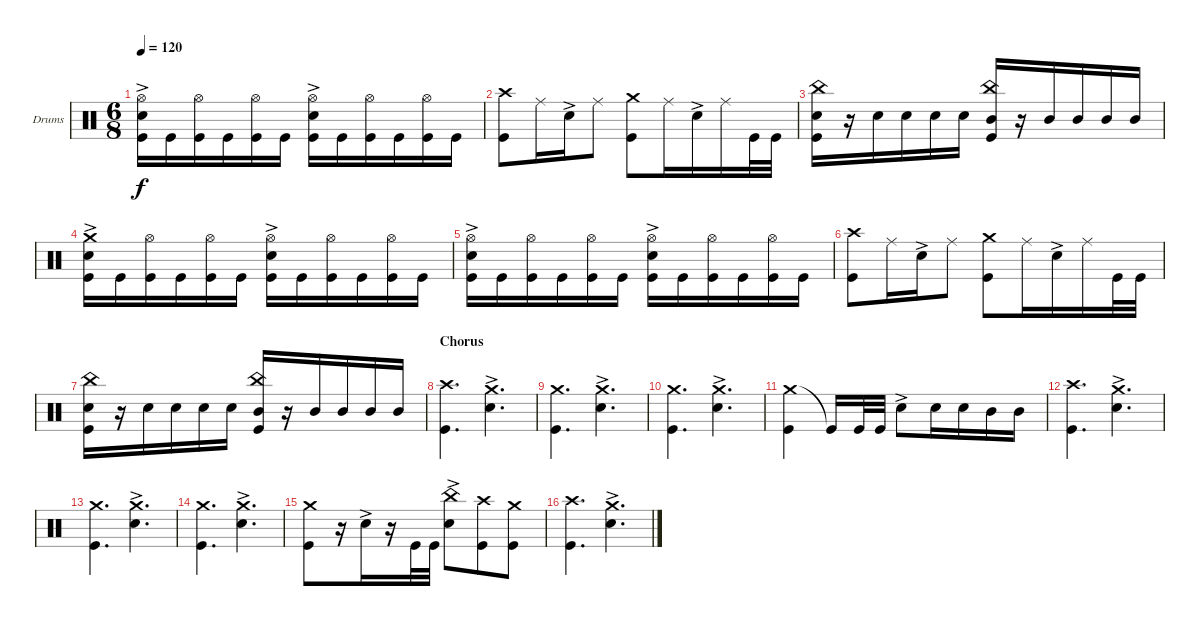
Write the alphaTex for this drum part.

\bracketExtendMode groupsimilarinstruments
\firstSystemTrackNameOrientation horizontal
\otherSystemsTrackNameOrientation horizontal
\track ("Drumkit" "Drums") {instrument percussion}
\staff {score}
\articulation defaults
\ts (6 8)
\tempo 120
\clef neutral
\ks c
("Kick (hit)" "Hi-Hat (open)" "Snare (hit) 2"{ac}).16{dy f} "Kick (hit)".16 ("Kick (hit)" "Hi-Hat (open)").16 "Kick (hit)".16 ("Kick (hit)" "Hi-Hat (open)").16 "Kick (hit)".16 ("Kick (hit)" "Hi-Hat (open)" "Snare (hit) 2"{ac}).16 "Kick (hit)".16 ("Kick (hit)" "Hi-Hat (open)").16 "Kick (hit)".16 ("Kick (hit)" "Hi-Hat (open)").16 "Kick (hit)".16 |
("Kick (hit)" "Crash high (hit)").8 "Ride (middle)".16 "Snare (hit) 2"{ac}.16 "Ride (middle)".8 ("Kick (hit)" "Crash medium (hit)").8 "Ride (middle)".16 "Snare (hit) 2"{ac}.16 "Ride (middle)".16 "Kick (hit)".32 "Kick (hit)".32 |
("Snare (hit) 2" "Kick (hit)" "China (hit)").16 r.16 "Snare (hit) 2".16 "Snare (hit) 2".16 "Snare (hit) 2".16 "Snare (hit) 2".16 ("Kick (hit)" "China (hit)" "Mid Tom (hit)").16 r.16 "Mid Tom (hit)".16 "Mid Tom (hit)".16 "Mid Tom (hit)".16 "Mid Tom (hit)".16 |
("Kick (hit)" "Crash medium (hit)" "Snare (hit) 2"{ac}).16 "Kick (hit)".16 ("Kick (hit)" "Hi-Hat (open)").16 "Kick (hit)".16 ("Kick (hit)" "Hi-Hat (open)").16 "Kick (hit)".16 ("Kick (hit)" "Hi-Hat (open)" "Snare (hit) 2"{ac}).16 "Kick (hit)".16 ("Kick (hit)" "Hi-Hat (open)").16 "Kick (hit)".16 ("Kick (hit)" "Hi-Hat (open)").16 "Kick (hit)".16 |
("Kick (hit)" "Hi-Hat (open)" "Snare (hit) 2"{ac}).16 "Kick (hit)".16 ("Kick (hit)" "Hi-Hat (open)").16 "Kick (hit)".16 ("Kick (hit)" "Hi-Hat (open)").16 "Kick (hit)".16 ("Kick (hit)" "Hi-Hat (open)" "Snare (hit) 2"{ac}).16 "Kick (hit)".16 ("Kick (hit)" "Hi-Hat (open)").16 "Kick (hit)".16 ("Kick (hit)" "Hi-Hat (open)").16 "Kick (hit)".16 |
("Kick (hit)" "Crash high (hit)").8 "Ride (middle)".16 "Snare (hit) 2"{ac}.16 "Ride (middle)".8 ("Kick (hit)" "Crash medium (hit)").8 "Ride (middle)".16 "Snare (hit) 2"{ac}.16 "Ride (middle)".16 "Kick (hit)".32 "Kick (hit)".32 |
("Snare (hit) 2" "Kick (hit)" "China (hit)").16 r.16 "Snare (hit) 2".16 "Snare (hit) 2".16 "Snare (hit) 2".16 "Snare (hit) 2".16 ("Kick (hit)" "China (hit)" "Mid Tom (hit)").16 r.16 "Mid Tom (hit)".16 "Mid Tom (hit)".16 "Mid Tom (hit)".16 "Mid Tom (hit)".16 |
\section ("" "Chorus")
("Kick (hit)" "Crash high (hit)").4{d} ("Snare (hit) 2"{ac} "Crash medium (hit)").4{d} |
("Crash medium (hit)" "Kick (hit)").4{d} ("Crash medium (hit)" "Snare (hit) 2"{ac}).4{d} |
("Crash medium (hit)" "Kick (hit)").4{d} ("Crash medium (hit)" "Snare (hit) 2"{ac}).4{d} |
("Crash medium (hit)" "Kick (hit)").4 "Kick (hit)"{t}.16 "Kick (hit)".32 "Kick (hit)".32 "Snare (hit) 2"{ac}.8 "Snare (hit) 2".16 "Snare (hit) 2".16 "Mid Tom (hit)".16 "Mid Tom (hit)".16 |
("Kick (hit)" "Crash high (hit)").4{d} ("Snare (hit) 2"{ac} "Crash medium (hit)").4{d} |
("Crash medium (hit)" "Kick (hit)").4{d} ("Crash medium (hit)" "Snare (hit) 2"{ac}).4{d} |
("Crash medium (hit)" "Kick (hit)").4{d} ("Crash medium (hit)" "Snare (hit) 2"{ac}).4{d} |
("Kick (hit)" "Crash medium (hit)").8 r.16 "Snare (hit) 2"{ac}.16 r.16 "Kick (hit)".32 "Kick (hit)".32 ("Snare (hit) 2"{ac} "China (hit)").8 ("Kick (hit)" "Crash high (hit)").8 ("Kick (hit)" "Crash medium (hit)").8 |
("Kick (hit)" "Crash high (hit)").4{d} ("Snare (hit) 2"{ac} "Crash medium (hit)").4{d}
